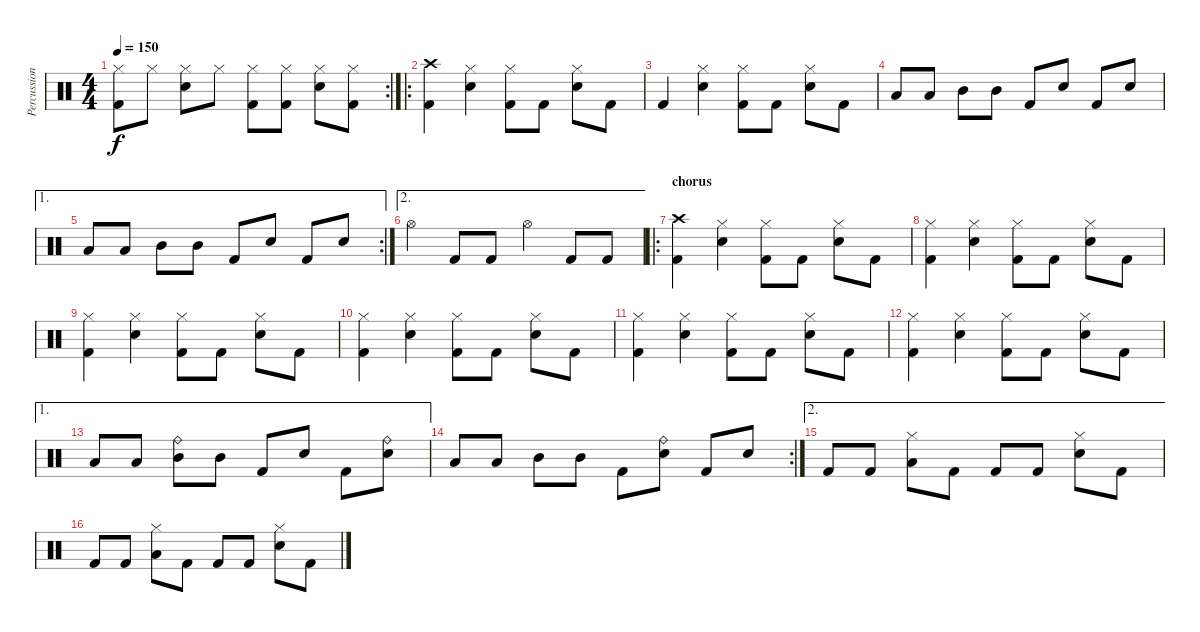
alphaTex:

\track ("Percussion" "Percussion") {instrument percussion}
\staff {score}
\articulation defaults
\rc 2
\ts (4 4)
\tempo 150
\clef neutral
\ks c
("Hi-Hat (closed)" "Kick (hit) 2").8{dy f} "Hi-Hat (closed)".8 ("Hi-Hat (closed)" "Electric Snare (hit)").8 "Hi-Hat (closed)".8 ("Hi-Hat (closed)" "Kick (hit) 2").8 ("Hi-Hat (closed)" "Kick (hit) 2").8 ("Hi-Hat (closed)" "Electric Snare (hit)").8 ("Hi-Hat (closed)" "Kick (hit) 2").8 |
\ro
("Crash high (hit)" "Kick (hit) 2").4 ("Hi-Hat (closed)" "Electric Snare (hit)").4 ("Hi-Hat (closed)" "Kick (hit) 2").8 "Kick (hit) 2".8 ("Hi-Hat (closed)" "Electric Snare (hit)").8 "Kick (hit) 2".8 |
"Kick (hit) 2".4 ("Hi-Hat (closed)" "Electric Snare (hit)").4 ("Hi-Hat (closed)" "Kick (hit) 2").8 "Kick (hit) 2".8 ("Hi-Hat (closed)" "Electric Snare (hit)").8 "Kick (hit) 2".8 |
"Low Tom (hit)".8 "Low Tom (hit)".8 "Mid Tom (hit)".8 "Mid Tom (hit)".8 "Kick (hit) 2".8 "Electric Snare (hit)".8 "Kick (hit) 2".8 "Electric Snare (hit)".8 |
\ae 1
\rc 2 "Low Tom (hit)".8 "Low Tom (hit)".8 "Mid Tom (hit)".8 "Mid Tom (hit)".8 "Kick (hit) 2".8 "Electric Snare (hit)".8 "Kick (hit) 2".8 "Electric Snare (hit)".8
|
\ae 2 "Hi-Hat (open)".4 "Kick (hit) 2".8 "Kick (hit) 2".8 "Hi-Hat (open)".4 "Kick (hit) 2".8 "Kick (hit) 2".8
|
\ro
\section ("" "chorus")
("Crash high (hit)" "Kick (hit) 2").4 ("Hi-Hat (closed)" "Electric Snare (hit)").4 ("Hi-Hat (closed)" "Kick (hit) 2").8 "Kick (hit) 2".8 ("Hi-Hat (closed)" "Electric Snare (hit)").8 "Kick (hit) 2".8 |
("Hi-Hat (closed)" "Kick (hit) 2").4 ("Hi-Hat (closed)" "Electric Snare (hit)").4 ("Hi-Hat (closed)" "Kick (hit) 2").8 "Kick (hit) 2".8 ("Hi-Hat (closed)" "Electric Snare (hit)").8 "Kick (hit) 2".8 |
("Hi-Hat (closed)" "Kick (hit) 2").4 ("Hi-Hat (closed)" "Electric Snare (hit)").4 ("Hi-Hat (closed)" "Kick (hit) 2").8 "Kick (hit) 2".8 ("Hi-Hat (closed)" "Electric Snare (hit)").8 "Kick (hit) 2".8 |
("Hi-Hat (closed)" "Kick (hit) 2").4 ("Hi-Hat (closed)" "Electric Snare (hit)").4 ("Hi-Hat (closed)" "Kick (hit) 2").8 "Kick (hit) 2".8 ("Hi-Hat (closed)" "Electric Snare (hit)").8 "Kick (hit) 2".8 |
("Hi-Hat (closed)" "Kick (hit) 2").4 ("Hi-Hat (closed)" "Electric Snare (hit)").4 ("Hi-Hat (closed)" "Kick (hit) 2").8 "Kick (hit) 2".8 ("Hi-Hat (closed)" "Electric Snare (hit)").8 "Kick (hit) 2".8 |
("Hi-Hat (closed)" "Kick (hit) 2").4 ("Hi-Hat (closed)" "Electric Snare (hit)").4 ("Hi-Hat (closed)" "Kick (hit) 2").8 "Kick (hit) 2".8 ("Hi-Hat (closed)" "Electric Snare (hit)").8 "Kick (hit) 2".8 |
\ae 1 "Low Tom (hit)".8 "Low Tom (hit)".8
("Ride (bell)" "Mid Tom (hit)").8 "Mid Tom (hit)".8 "Kick (hit) 2".8 "Electric Snare (hit)".8 "Kick (hit) 2".8 ("Ride (bell)" "Electric Snare (hit)").8 |
\rc 2 "Low Tom (hit)".8 "Low Tom (hit)".8 "Mid Tom (hit)".8 "Mid Tom (hit)".8 "Kick (hit) 2".8
("Ride (bell)" "Electric Snare (hit)").8 "Kick (hit) 2".8 "Electric Snare (hit)".8 |
\ae 2 "Kick (hit) 2".8 "Kick (hit) 2".8
("Hi-Hat (closed)" "Low Tom (hit)").8 "Kick (hit) 2".8 "Kick (hit) 2".8 "Kick (hit) 2".8 ("Hi-Hat (closed)" "Electric Snare (hit)").8 "Kick (hit) 2".8 |
"Kick (hit) 2".8 "Kick (hit) 2".8 ("Hi-Hat (closed)" "Low Tom (hit)").8 "Kick (hit) 2".8 "Kick (hit) 2".8 "Kick (hit) 2".8 ("Hi-Hat (closed)" "Electric Snare (hit)").8 "Kick (hit) 2".8
